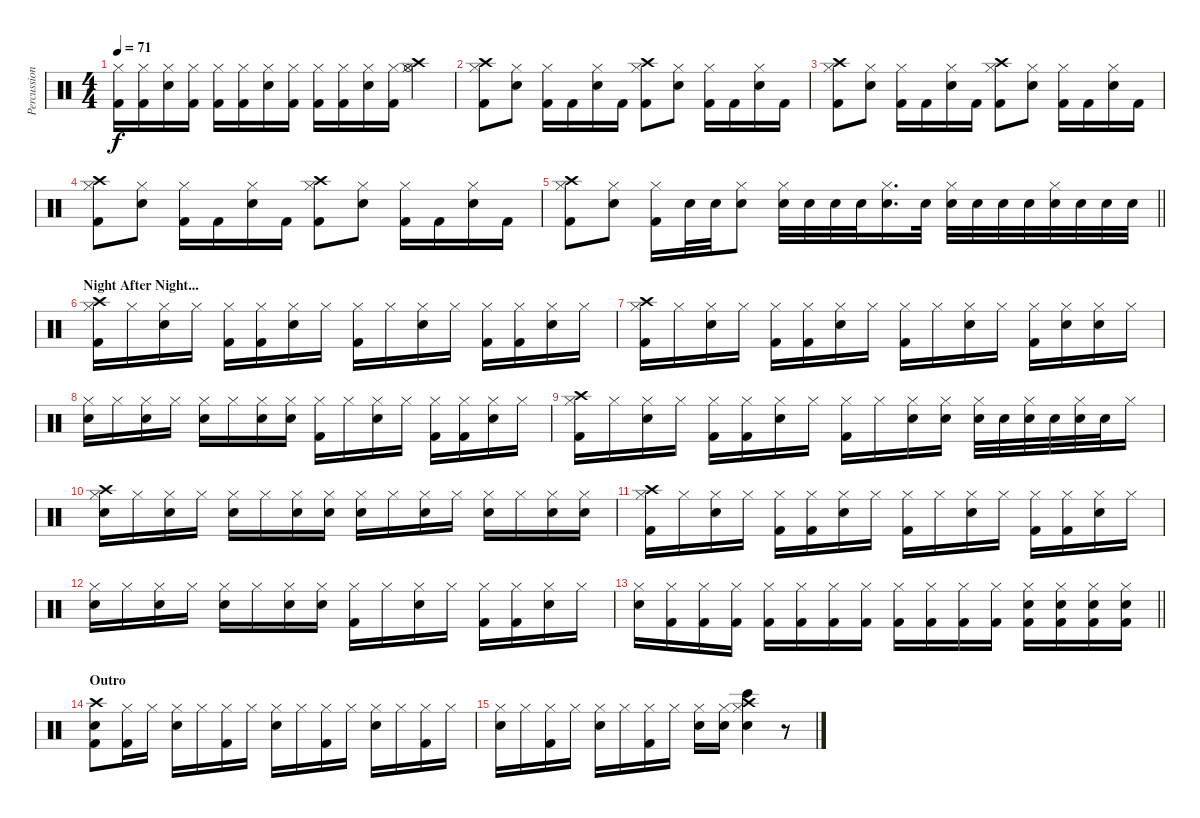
\track ("Percussion" "Percussion") {instrument percussion}
\staff {score}
\articulation defaults
\ts (4 4)
\tempo 71
\clef neutral
\ks c
("Hi-Hat (closed)" "Kick (hit) 2").16{dy f} ("Hi-Hat (closed)" "Kick (hit) 2").16 ("Hi-Hat (closed)" "Snare (hit) 2").16 ("Hi-Hat (closed)" "Kick (hit) 2").16 ("Hi-Hat (closed)" "Kick (hit) 2").16 ("Hi-Hat (closed)" "Kick (hit) 2").16 ("Hi-Hat (closed)" "Snare (hit) 2").16 ("Hi-Hat (closed)" "Kick (hit) 2").16 ("Hi-Hat (closed)" "Kick (hit) 2").16 ("Hi-Hat (closed)" "Kick (hit) 2").16 ("Hi-Hat (closed)" "Snare (hit) 2").16 ("Hi-Hat (closed)" "Kick (hit) 2").16 ("Hi-Hat (closed)" "Crash high (hit)" "Hi-Hat (open)").4 |
("Crash high (hit)" "Kick (hit) 2" "Hi-Hat (closed)").8 ("Snare (hit) 2" "Hi-Hat (closed)").8 ("Kick (hit) 2" "Hi-Hat (closed)").16 "Kick (hit) 2".16 ("Snare (hit) 2" "Hi-Hat (closed)").16 "Kick (hit) 2".16 ("Crash high (hit)" "Kick (hit) 2" "Hi-Hat (closed)").8 ("Snare (hit) 2" "Hi-Hat (closed)").8 ("Kick (hit) 2" "Hi-Hat (closed)").16 "Kick (hit) 2".16 ("Snare (hit) 2" "Hi-Hat (closed)").16 "Kick (hit) 2".16 |
("Crash high (hit)" "Kick (hit) 2" "Hi-Hat (closed)").8 ("Snare (hit) 2" "Hi-Hat (closed)").8 ("Kick (hit) 2" "Hi-Hat (closed)").16 "Kick (hit) 2".16 ("Snare (hit) 2" "Hi-Hat (closed)").16 "Kick (hit) 2".16 ("Crash high (hit)" "Kick (hit) 2" "Hi-Hat (closed)").8 ("Snare (hit) 2" "Hi-Hat (closed)").8 ("Kick (hit) 2" "Hi-Hat (closed)").16 "Kick (hit) 2".16 ("Snare (hit) 2" "Hi-Hat (closed)").16 "Kick (hit) 2".16 |
("Crash high (hit)" "Kick (hit) 2" "Hi-Hat (closed)").8 ("Snare (hit) 2" "Hi-Hat (closed)").8 ("Kick (hit) 2" "Hi-Hat (closed)").16 "Kick (hit) 2".16 ("Snare (hit) 2" "Hi-Hat (closed)").16 "Kick (hit) 2".16 ("Crash high (hit)" "Kick (hit) 2" "Hi-Hat (closed)").8 ("Snare (hit) 2" "Hi-Hat (closed)").8 ("Kick (hit) 2" "Hi-Hat (closed)").16 "Kick (hit) 2".16 ("Snare (hit) 2" "Hi-Hat (closed)").16 "Kick (hit) 2".16 |
\barLineRight lightlight
("Crash high (hit)" "Kick (hit) 2" "Hi-Hat (closed)").8 ("Snare (hit) 2" "Hi-Hat (closed)").8 ("Kick (hit) 2" "Hi-Hat (closed)").16 "Snare (hit) 2".32 "Snare (hit) 2".32 ("Snare (hit) 2" "Hi-Hat (closed)").8 ("Snare (hit) 2" "Hi-Hat (closed)").32 "Snare (hit) 2".32 "Snare (hit) 2".32 "Snare (hit) 2".32 ("Snare (hit) 2" "Hi-Hat (closed)").16{d} "Snare (hit) 2".32 ("Snare (hit) 2" "Hi-Hat (closed)").32 "Snare (hit) 2".32 "Snare (hit) 2".32 "Snare (hit) 2".32 ("Snare (hit) 2" "Hi-Hat (closed)").32 "Snare (hit) 2".32 "Snare (hit) 2".32 "Snare (hit) 2".32 |
\section ("" "Night After Night...")
("Crash high (hit)" "Hi-Hat (closed)" "Kick (hit) 2").16 "Hi-Hat (closed)".16 ("Hi-Hat (closed)" "Snare (hit) 2").16 "Hi-Hat (closed)".16 ("Hi-Hat (closed)" "Kick (hit) 2").16 ("Hi-Hat (closed)" "Kick (hit) 2").16 ("Hi-Hat (closed)" "Snare (hit) 2").16 "Hi-Hat (closed)".16 ("Hi-Hat (closed)" "Kick (hit) 2").16 "Hi-Hat (closed)".16 ("Hi-Hat (closed)" "Snare (hit) 2").16 "Hi-Hat (closed)".16 ("Hi-Hat (closed)" "Kick (hit) 2").16 ("Hi-Hat (closed)" "Kick (hit) 2").16 ("Hi-Hat (closed)" "Snare (hit) 2").16 "Hi-Hat (closed)".16 |
("Crash high (hit)" "Hi-Hat (closed)" "Kick (hit) 2").16 "Hi-Hat (closed)".16 ("Hi-Hat (closed)" "Snare (hit) 2").16 "Hi-Hat (closed)".16 ("Hi-Hat (closed)" "Kick (hit) 2").16 ("Hi-Hat (closed)" "Kick (hit) 2").16 ("Hi-Hat (closed)" "Snare (hit) 2").16 "Hi-Hat (closed)".16 ("Hi-Hat (closed)" "Kick (hit) 2").16 "Hi-Hat (closed)".16 ("Hi-Hat (closed)" "Snare (hit) 2").16 "Hi-Hat (closed)".16 ("Hi-Hat (closed)" "Kick (hit) 2").16 ("Hi-Hat (closed)" "Snare (hit) 2").16 ("Hi-Hat (closed)" "Snare (hit) 2").16 "Hi-Hat (closed)".16 |
("Hi-Hat (closed)" "Snare (hit) 2").16 "Hi-Hat (closed)".16 ("Hi-Hat (closed)" "Snare (hit) 2").16 "Hi-Hat (closed)".16 ("Hi-Hat (closed)" "Snare (hit) 2").16 "Hi-Hat (closed)".16 ("Hi-Hat (closed)" "Snare (hit) 2").16 ("Hi-Hat (closed)" "Snare (hit) 2").16 ("Hi-Hat (closed)" "Kick (hit) 2").16 "Hi-Hat (closed)".16 ("Hi-Hat (closed)" "Snare (hit) 2").16 "Hi-Hat (closed)".16 ("Hi-Hat (closed)" "Kick (hit) 2").16 ("Hi-Hat (closed)" "Kick (hit) 2").16 ("Hi-Hat (closed)" "Snare (hit) 2").16 "Hi-Hat (closed)".16 |
("Crash high (hit)" "Hi-Hat (closed)" "Kick (hit) 2").16 "Hi-Hat (closed)".16 ("Hi-Hat (closed)" "Snare (hit) 2").16 "Hi-Hat (closed)".16 ("Hi-Hat (closed)" "Kick (hit) 2").16 ("Hi-Hat (closed)" "Kick (hit) 2").16 ("Hi-Hat (closed)" "Snare (hit) 2").16 "Hi-Hat (closed)".16 ("Hi-Hat (closed)" "Kick (hit) 2").16 "Hi-Hat (closed)".16 ("Hi-Hat (closed)" "Snare (hit) 2").16 ("Hi-Hat (closed)" "Snare (hit) 2").16 ("Hi-Hat (closed)" "Snare (hit) 2").32 "Snare (hit) 2".32 ("Hi-Hat (closed)" "Snare (hit) 2").32 "Snare (hit) 2".32 ("Hi-Hat (closed)" "Snare (hit) 2").32 "Snare (hit) 2".32 "Hi-Hat (closed)".16 |
("Crash high (hit)" "Hi-Hat (closed)" "Snare (hit) 2").16 "Hi-Hat (closed)".16 ("Hi-Hat (closed)" "Snare (hit) 2").16 "Hi-Hat (closed)".16 ("Hi-Hat (closed)" "Snare (hit) 2").16 "Hi-Hat (closed)".16 ("Hi-Hat (closed)" "Snare (hit) 2").16 ("Hi-Hat (closed)" "Snare (hit) 2").16 ("Hi-Hat (closed)" "Snare (hit) 2").16 "Hi-Hat (closed)".16 ("Hi-Hat (closed)" "Snare (hit) 2").16 "Hi-Hat (closed)".16 ("Hi-Hat (closed)" "Snare (hit) 2").16 "Hi-Hat (closed)".16 ("Hi-Hat (closed)" "Snare (hit) 2").16 ("Hi-Hat (closed)" "Snare (hit) 2").16 |
("Crash high (hit)" "Hi-Hat (closed)" "Kick (hit) 2").16 "Hi-Hat (closed)".16 ("Hi-Hat (closed)" "Snare (hit) 2").16 "Hi-Hat (closed)".16 ("Hi-Hat (closed)" "Kick (hit) 2").16 ("Hi-Hat (closed)" "Kick (hit) 2").16 ("Hi-Hat (closed)" "Snare (hit) 2").16 "Hi-Hat (closed)".16 ("Hi-Hat (closed)" "Kick (hit) 2").16 "Hi-Hat (closed)".16 ("Hi-Hat (closed)" "Snare (hit) 2").16 "Hi-Hat (closed)".16 ("Hi-Hat (closed)" "Kick (hit) 2").16 ("Hi-Hat (closed)" "Kick (hit) 2").16 ("Hi-Hat (closed)" "Snare (hit) 2").16 "Hi-Hat (closed)".16 |
("Hi-Hat (closed)" "Snare (hit) 2").16 "Hi-Hat (closed)".16 ("Hi-Hat (closed)" "Snare (hit) 2").16 "Hi-Hat (closed)".16 ("Hi-Hat (closed)" "Snare (hit) 2").16 "Hi-Hat (closed)".16 ("Hi-Hat (closed)" "Snare (hit) 2").16 ("Hi-Hat (closed)" "Snare (hit) 2").16 ("Hi-Hat (closed)" "Kick (hit) 2").16 "Hi-Hat (closed)".16 ("Hi-Hat (closed)" "Snare (hit) 2").16 "Hi-Hat (closed)".16 ("Hi-Hat (closed)" "Kick (hit) 2").16 ("Hi-Hat (closed)" "Kick (hit) 2").16 ("Hi-Hat (closed)" "Snare (hit) 2").16 "Hi-Hat (closed)".16 |
\barLineRight lightlight
("Hi-Hat (closed)" "Snare (hit) 2").16 ("Hi-Hat (closed)" "Kick (hit) 2").16 ("Hi-Hat (closed)" "Kick (hit) 2").16 ("Hi-Hat (closed)" "Kick (hit) 2").16 ("Hi-Hat (closed)" "Kick (hit) 2").16 ("Hi-Hat (closed)" "Kick (hit) 2").16 ("Hi-Hat (closed)" "Kick (hit) 2").16 ("Hi-Hat (closed)" "Kick (hit) 2").16 ("Hi-Hat (closed)" "Kick (hit) 2").16 ("Hi-Hat (closed)" "Kick (hit) 2").16 ("Hi-Hat (closed)" "Kick (hit) 2").16 ("Hi-Hat (closed)" "Kick (hit) 2").16 ("Hi-Hat (closed)" "Kick (hit) 2" "Snare (hit) 2").16 ("Hi-Hat (closed)" "Kick (hit) 2" "Snare (hit) 2").16 ("Hi-Hat (closed)" "Kick (hit) 2" "Snare (hit) 2").16 ("Hi-Hat (closed)" "Kick (hit) 2" "Snare (hit) 2").16 |
\section ("" "Outro")
("Crash high (hit)" "Snare (hit) 2" "Kick (hit) 2").8 ("Hi-Hat (closed)" "Kick (hit) 2").16 "Hi-Hat (closed)".16 ("Hi-Hat (closed)" "Snare (hit) 2").16 "Hi-Hat (closed)".16 ("Hi-Hat (closed)" "Kick (hit) 2").16 "Hi-Hat (closed)".16 ("Hi-Hat (closed)" "Snare (hit) 2").16 "Hi-Hat (closed)".16 ("Hi-Hat (closed)" "Kick (hit) 2").16 "Hi-Hat (closed)".16 ("Hi-Hat (closed)" "Snare (hit) 2").16 "Hi-Hat (closed)".16 ("Hi-Hat (closed)" "Kick (hit) 2").16 "Hi-Hat (closed)".16 |
("Hi-Hat (closed)" "Snare (hit) 2").16 "Hi-Hat (closed)".16 ("Hi-Hat (closed)" "Kick (hit) 2").16 "Hi-Hat (closed)".16 ("Hi-Hat (closed)" "Snare (hit) 2").16 "Hi-Hat (closed)".16 ("Hi-Hat (closed)" "Kick (hit) 2").16 "Hi-Hat (closed)".16 ("Hi-Hat (closed)" "Snare (hit) 2").16 ("Hi-Hat (closed)" "Snare (hit) 2").16 ("Crash high (hit)" "Hi-Hat (closed)" "Snare (hit) 2" "Bongo High (hit)").4 r.8
